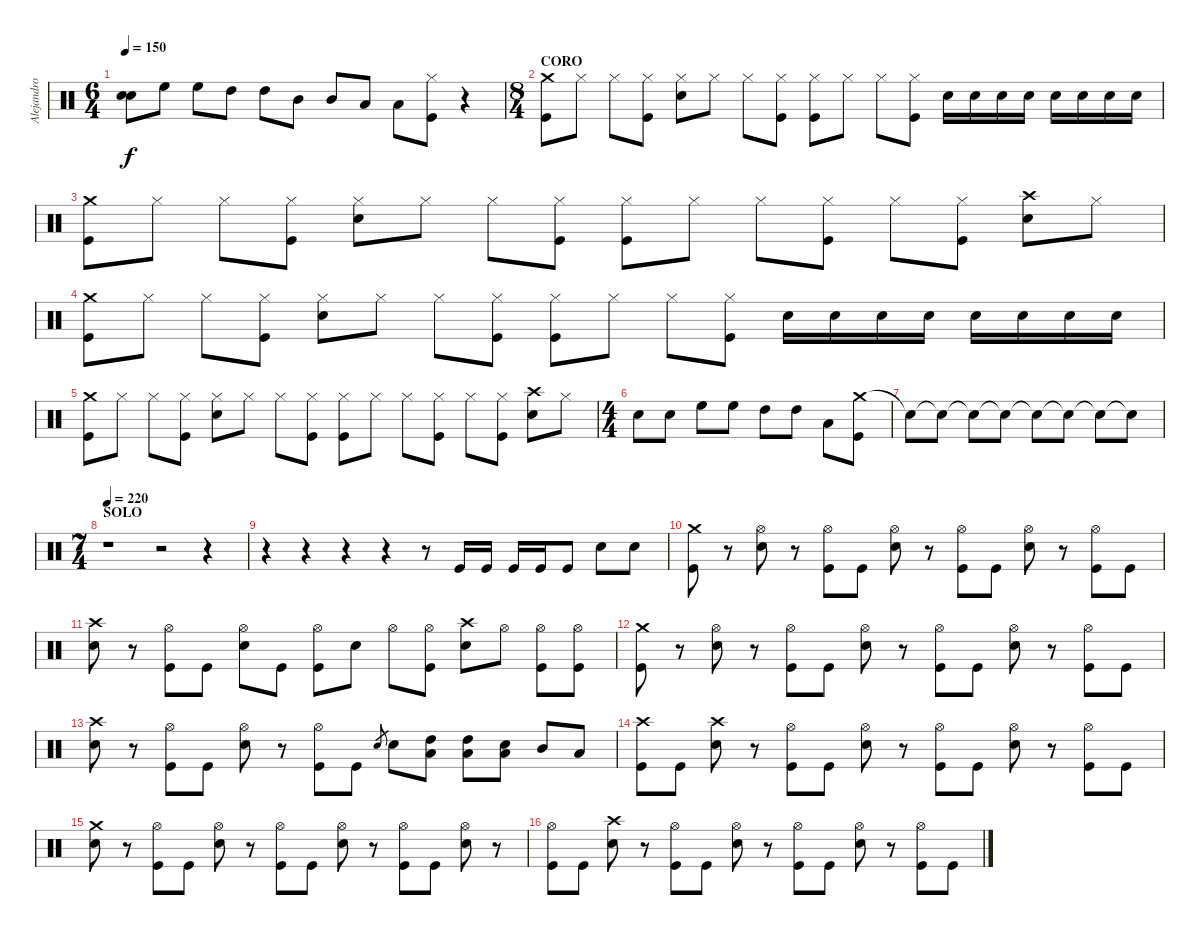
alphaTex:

\track ("Alejandro M. (Bateria)" "Alejandro ") {instrument percussion}
\staff {score}
\articulation defaults
\ts (6 4)
\tempo 150
\clef neutral
\ks c
("Snare (hit) 2" "Snare (hit) 2").8{dy f} "High Floor Tom (hit)".8 "High Floor Tom (hit)".8 "High Tom (hit)".8 "High Tom (hit)".8 "Mid Tom (hit)".8 "Mid Tom (hit)".8 "Low Tom (hit)".8 "Low Tom (hit)".8 ("Hi-Hat (closed)" "Kick (hit)").8 r.4 |
\ts (8 4)
\section ("" "CORO")
("Crash medium (hit)" "Kick (hit)").8 "Hi-Hat (closed)".8 "Hi-Hat (closed)".8 ("Hi-Hat (closed)" "Kick (hit)").8 ("Hi-Hat (closed)" "Snare (hit) 2").8 "Hi-Hat (closed)".8 "Hi-Hat (closed)".8 ("Hi-Hat (closed)" "Kick (hit)").8 ("Hi-Hat (closed)" "Kick (hit)").8 "Hi-Hat (closed)".8 "Hi-Hat (closed)".8 ("Hi-Hat (closed)" "Kick (hit)").8 "Snare (hit) 2".16 "Snare (hit) 2".16 "Snare (hit) 2".16 "Snare (hit) 2".16 "Snare (hit) 2".16 "Snare (hit) 2".16 "Snare (hit) 2".16 "Snare (hit) 2".16 |
("Crash medium (hit)" "Kick (hit)").8 "Hi-Hat (closed)".8 "Hi-Hat (closed)".8 ("Hi-Hat (closed)" "Kick (hit)").8 ("Hi-Hat (closed)" "Snare (hit) 2").8 "Hi-Hat (closed)".8 "Hi-Hat (closed)".8 ("Hi-Hat (closed)" "Kick (hit)").8 ("Hi-Hat (closed)" "Kick (hit)").8 "Hi-Hat (closed)".8 "Hi-Hat (closed)".8 ("Hi-Hat (closed)" "Kick (hit)").8 "Hi-Hat (closed)".8 ("Hi-Hat (closed)" "Kick (hit)").8 ("Crash high (hit)" "Snare (hit) 2").8 "Hi-Hat (closed)".8 |
("Crash medium (hit)" "Kick (hit)").8 "Hi-Hat (closed)".8 "Hi-Hat (closed)".8 ("Hi-Hat (closed)" "Kick (hit)").8 ("Hi-Hat (closed)" "Snare (hit) 2").8 "Hi-Hat (closed)".8 "Hi-Hat (closed)".8 ("Hi-Hat (closed)" "Kick (hit)").8 ("Hi-Hat (closed)" "Kick (hit)").8 "Hi-Hat (closed)".8 "Hi-Hat (closed)".8 ("Hi-Hat (closed)" "Kick (hit)").8 "Snare (hit) 2".16 "Snare (hit) 2".16 "Snare (hit) 2".16 "Snare (hit) 2".16 "Snare (hit) 2".16 "Snare (hit) 2".16 "Snare (hit) 2".16 "Snare (hit) 2".16 |
("Crash medium (hit)" "Kick (hit)").8 "Hi-Hat (closed)".8 "Hi-Hat (closed)".8 ("Hi-Hat (closed)" "Kick (hit)").8 ("Hi-Hat (closed)" "Snare (hit) 2").8 "Hi-Hat (closed)".8 "Hi-Hat (closed)".8 ("Hi-Hat (closed)" "Kick (hit)").8 ("Hi-Hat (closed)" "Kick (hit)").8 "Hi-Hat (closed)".8 "Hi-Hat (closed)".8 ("Hi-Hat (closed)" "Kick (hit)").8 "Hi-Hat (closed)".8 ("Hi-Hat (closed)" "Kick (hit)").8 ("Crash high (hit)" "Snare (hit) 2").8 "Hi-Hat (closed)".8 |
\ts (4 4)
"Snare (hit) 2".8 "Snare (hit) 2".8 "High Floor Tom (hit)".8 "High Floor Tom (hit)".8 "High Tom (hit)".8 "High Tom (hit)".8 "Low Tom (hit)".8 ("Crash medium (hit)" "Kick (hit)").8 |
"Snare (hit)"{t}.8 "Snare (hit)"{t}.8 "Snare (hit)"{t}.8 "Snare (hit)"{t}.8 "Snare (hit)"{t}.8 "Snare (hit)"{t}.8 "Snare (hit)"{t}.8 "Snare (hit)"{t}.8 |
\ts (7 4)
\section ("" "SOLO")
\tempo 220
r.1 r.2 r.4 |
r.4 r.4 r.4 r.4 r.8 "Kick (hit)".16 "Kick (hit)".16 "Kick (hit)".16 "Kick (hit)".16 "Kick (hit)".8 "Snare (hit) 2".8 "Snare (hit) 2".8 |
("Crash medium (hit)" "Kick (hit)").8 r.8 ("Hi-Hat (open)" "Snare (hit) 2").8 r.8 ("Hi-Hat (open)" "Kick (hit)").8 "Kick (hit)".8 ("Hi-Hat (open)" "Snare (hit) 2").8 r.8 ("Hi-Hat (open)" "Kick (hit)").8 "Kick (hit)".8 ("Hi-Hat (open)" "Snare (hit) 2").8 r.8 ("Hi-Hat (open)" "Kick (hit)").8 "Kick (hit)".8 |
("Crash high (hit)" "Snare (hit) 2").8 r.8 ("Hi-Hat (open)" "Kick (hit)").8 "Kick (hit)".8 ("Hi-Hat (open)" "Snare (hit) 2").8 "Kick (hit)".8 ("Hi-Hat (open)" "Kick (hit)").8 "Snare (hit) 2".8 "Hi-Hat (open)".8 ("Hi-Hat (open)" "Kick (hit)").8 ("Crash high (hit)" "Snare (hit) 2").8 "Hi-Hat (open)".8 ("Hi-Hat (open)" "Kick (hit)").8 ("Hi-Hat (open)" "Kick (hit)").8 |
("Crash medium (hit)" "Kick (hit)").8 r.8 ("Hi-Hat (open)" "Snare (hit) 2").8 r.8 ("Hi-Hat (open)" "Kick (hit)").8 "Kick (hit)".8 ("Hi-Hat (open)" "Snare (hit) 2").8 r.8 ("Hi-Hat (open)" "Kick (hit)").8 "Kick (hit)".8 ("Hi-Hat (open)" "Snare (hit) 2").8 r.8 ("Hi-Hat (open)" "Kick (hit)").8 "Kick (hit)".8 |
("Crash high (hit)" "Snare (hit) 2").8 r.8 ("Hi-Hat (open)" "Kick (hit)").8 "Kick (hit)".8 ("Hi-Hat (open)" "Snare (hit) 2").8 r.8 ("Hi-Hat (open)" "Kick (hit)").8 "Kick (hit)".8 "Snare (hit) 2".8{gr} "Snare (hit) 2".8 ("High Tom (hit)" "Low Tom (hit)").8 ("High Tom (hit)" "Low Tom (hit)").8 ("Snare (hit) 2" "Low Tom (hit)").8 "Mid Tom (hit)".8 "Low Tom (hit)".8 |
("Crash high (hit)" "Kick (hit)").8 "Kick (hit)".8 ("Crash high (hit)" "Snare (hit) 2").8 r.8 ("Hi-Hat (open)" "Kick (hit)").8 "Kick (hit)".8 ("Hi-Hat (open)" "Snare (hit) 2").8 r.8 ("Hi-Hat (open)" "Kick (hit)").8 "Kick (hit)".8 ("Hi-Hat (open)" "Snare (hit) 2").8 r.8 ("Hi-Hat (open)" "Kick (hit)").8 "Kick (hit)".8 |
("Crash medium (hit)" "Snare (hit) 2").8 r.8 ("Hi-Hat (open)" "Kick (hit)").8 "Kick (hit)".8 ("Hi-Hat (open)" "Snare (hit) 2").8 r.8 ("Hi-Hat (open)" "Kick (hit)").8 "Kick (hit)".8 ("Hi-Hat (open)" "Snare (hit) 2").8 r.8 ("Hi-Hat (open)" "Kick (hit)").8 "Kick (hit)".8 ("Hi-Hat (open)" "Snare (hit) 2").8 r.8 |
("Hi-Hat (open)" "Kick (hit)").8 "Kick (hit)".8 ("Crash high (hit)" "Snare (hit) 2").8 r.8 ("Hi-Hat (open)" "Kick (hit)").8 "Kick (hit)".8 ("Hi-Hat (open)" "Snare (hit) 2").8 r.8 ("Hi-Hat (open)" "Kick (hit)").8 "Kick (hit)".8 ("Hi-Hat (open)" "Snare (hit) 2").8 r.8 ("Hi-Hat (open)" "Kick (hit)").8 "Kick (hit)".8
